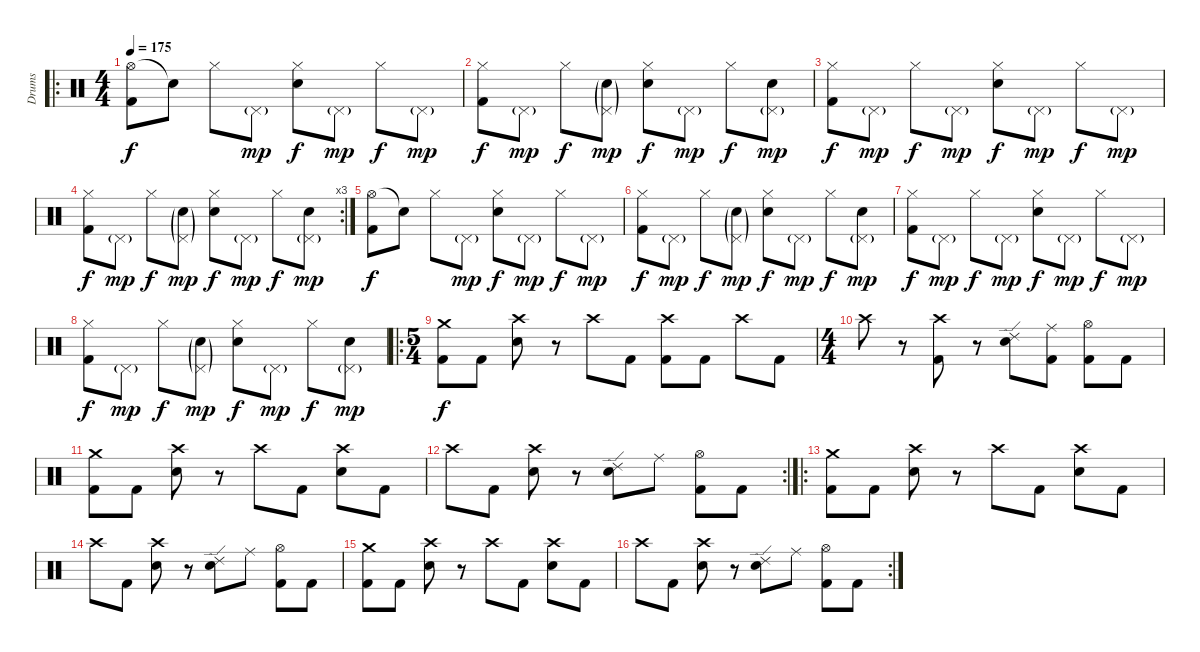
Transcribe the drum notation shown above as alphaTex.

\track ("Drums" "Drums") {instrument percussion}
\staff {score}
\articulation defaults
\ro
\ts (4 4)
\tempo 175
\clef neutral
\ks c
("Hi-Hat (open)" "Kick (hit) 2").8{dy f} "Snare (hit)"{t}.8 "Hi-Hat (closed)".8 "Pedal Hi-Hat (hit)"{g}.8{dy mp} ("Hi-Hat (closed)" "Electric Snare (hit)").8{dy f} "Pedal Hi-Hat (hit)"{g}.8{dy mp} "Hi-Hat (closed)".8{dy f} "Pedal Hi-Hat (hit)"{g}.8{dy mp} |
("Hi-Hat (closed)" "Kick (hit) 2").8{dy f} "Pedal Hi-Hat (hit)"{g}.8{dy mp} "Hi-Hat (closed)".8{dy f} ("Pedal Hi-Hat (hit)"{g} "Electric Snare (hit)"{g}).8{dy mp} ("Hi-Hat (closed)" "Electric Snare (hit)").8{dy f} "Pedal Hi-Hat (hit)"{g}.8{dy mp} "Hi-Hat (closed)".8{dy f} ("Pedal Hi-Hat (hit)"{g} "Electric Snare (hit)").8{dy mp} |
("Hi-Hat (closed)" "Kick (hit) 2").8{dy f} "Pedal Hi-Hat (hit)"{g}.8{dy mp} "Hi-Hat (closed)".8{dy f} "Pedal Hi-Hat (hit)"{g}.8{dy mp} ("Hi-Hat (closed)" "Electric Snare (hit)").8{dy f} "Pedal Hi-Hat (hit)"{g}.8{dy mp} "Hi-Hat (closed)".8{dy f} "Pedal Hi-Hat (hit)"{g}.8{dy mp} |
\rc 3
("Hi-Hat (closed)" "Kick (hit) 2").8{dy f} "Pedal Hi-Hat (hit)"{g}.8{dy mp} "Hi-Hat (closed)".8{dy f} ("Pedal Hi-Hat (hit)"{g} "Electric Snare (hit)"{g}).8{dy mp} ("Hi-Hat (closed)" "Electric Snare (hit)").8{dy f} "Pedal Hi-Hat (hit)"{g}.8{dy mp} "Hi-Hat (closed)".8{dy f} ("Pedal Hi-Hat (hit)"{g} "Electric Snare (hit)").8{dy mp} |
("Hi-Hat (open)" "Kick (hit) 2").8{dy f} "Snare (hit)"{t}.8 "Hi-Hat (closed)".8 "Pedal Hi-Hat (hit)"{g}.8{dy mp} ("Hi-Hat (closed)" "Electric Snare (hit)").8{dy f} "Pedal Hi-Hat (hit)"{g}.8{dy mp} "Hi-Hat (closed)".8{dy f} "Pedal Hi-Hat (hit)"{g}.8{dy mp} |
("Hi-Hat (closed)" "Kick (hit) 2").8{dy f} "Pedal Hi-Hat (hit)"{g}.8{dy mp} "Hi-Hat (closed)".8{dy f} ("Pedal Hi-Hat (hit)"{g} "Electric Snare (hit)"{g}).8{dy mp} ("Hi-Hat (closed)" "Electric Snare (hit)").8{dy f} "Pedal Hi-Hat (hit)"{g}.8{dy mp} "Hi-Hat (closed)".8{dy f} ("Pedal Hi-Hat (hit)"{g} "Electric Snare (hit)").8{dy mp} |
("Hi-Hat (closed)" "Kick (hit) 2").8{dy f} "Pedal Hi-Hat (hit)"{g}.8{dy mp} "Hi-Hat (closed)".8{dy f} "Pedal Hi-Hat (hit)"{g}.8{dy mp} ("Hi-Hat (closed)" "Electric Snare (hit)").8{dy f} "Pedal Hi-Hat (hit)"{g}.8{dy mp} "Hi-Hat (closed)".8{dy f} "Pedal Hi-Hat (hit)"{g}.8{dy mp} |
("Hi-Hat (closed)" "Kick (hit) 2").8{dy f} "Pedal Hi-Hat (hit)"{g}.8{dy mp} "Hi-Hat (closed)".8{dy f} ("Pedal Hi-Hat (hit)"{g} "Electric Snare (hit)"{g}).8{dy mp} ("Hi-Hat (closed)" "Electric Snare (hit)").8{dy f} "Pedal Hi-Hat (hit)"{g}.8{dy mp} "Hi-Hat (closed)".8{dy f} ("Pedal Hi-Hat (hit)"{g} "Electric Snare (hit)").8{dy mp} |
\ro
\ts (5 4)
("Crash medium (hit)" "Kick (hit) 2").8{dy f} "Kick (hit) 2".8 ("Crash high (hit)" "Electric Snare (hit)").8 r.8 "Crash high (hit)".8 "Kick (hit) 2".8 ("Crash high (hit)" "Kick (hit) 2").8 "Kick (hit) 2".8 "Crash high (hit)".8 "Kick (hit) 2".8 |
\ts (4 4)
"Crash high (hit)".8 r.8 ("Crash high (hit)" "Kick (hit) 2").8 r.8 ("Ride (edge) 2" "Electric Snare (hit)").8 ("Ride (middle)" "Kick (hit) 2").8 ("Hi-Hat (open)" "Kick (hit) 2").8 "Kick (hit) 2".8 |
("Crash medium (hit)" "Kick (hit) 2").8 "Kick (hit) 2".8 ("Crash high (hit)" "Electric Snare (hit)").8 r.8 "Crash high (hit)".8 "Kick (hit) 2".8 ("Crash high (hit)" "Electric Snare (hit)").8 "Kick (hit) 2".8 |
\rc 2 "Crash high (hit)".8 "Kick (hit) 2".8
("Crash high (hit)" "Electric Snare (hit)").8 r.8 ("Ride (edge) 2" "Electric Snare (hit)").8 "Ride (middle)".8 ("Hi-Hat (open)" "Kick (hit) 2").8 "Kick (hit) 2".8 |
\ro
("Crash medium (hit)" "Kick (hit) 2").8 "Kick (hit) 2".8 ("Crash high (hit)" "Electric Snare (hit)").8 r.8 "Crash high (hit)".8 "Kick (hit) 2".8 ("Crash high (hit)" "Electric Snare (hit)").8 "Kick (hit) 2".8 |
"Crash high (hit)".8 "Kick (hit) 2".8 ("Crash high (hit)" "Electric Snare (hit)").8 r.8 ("Ride (edge) 2" "Electric Snare (hit)").8 "Ride (middle)".8 ("Hi-Hat (open)" "Kick (hit) 2").8 "Kick (hit) 2".8 |
("Crash medium (hit)" "Kick (hit) 2").8 "Kick (hit) 2".8 ("Crash high (hit)" "Electric Snare (hit)").8 r.8 "Crash high (hit)".8 "Kick (hit) 2".8 ("Crash high (hit)" "Electric Snare (hit)").8 "Kick (hit) 2".8 |
\rc 2 "Crash high (hit)".8 "Kick (hit) 2".8
("Crash high (hit)" "Electric Snare (hit)").8 r.8 ("Ride (edge) 2" "Electric Snare (hit)").8 "Ride (middle)".8 ("Hi-Hat (open)" "Kick (hit) 2").8 "Kick (hit) 2".8
